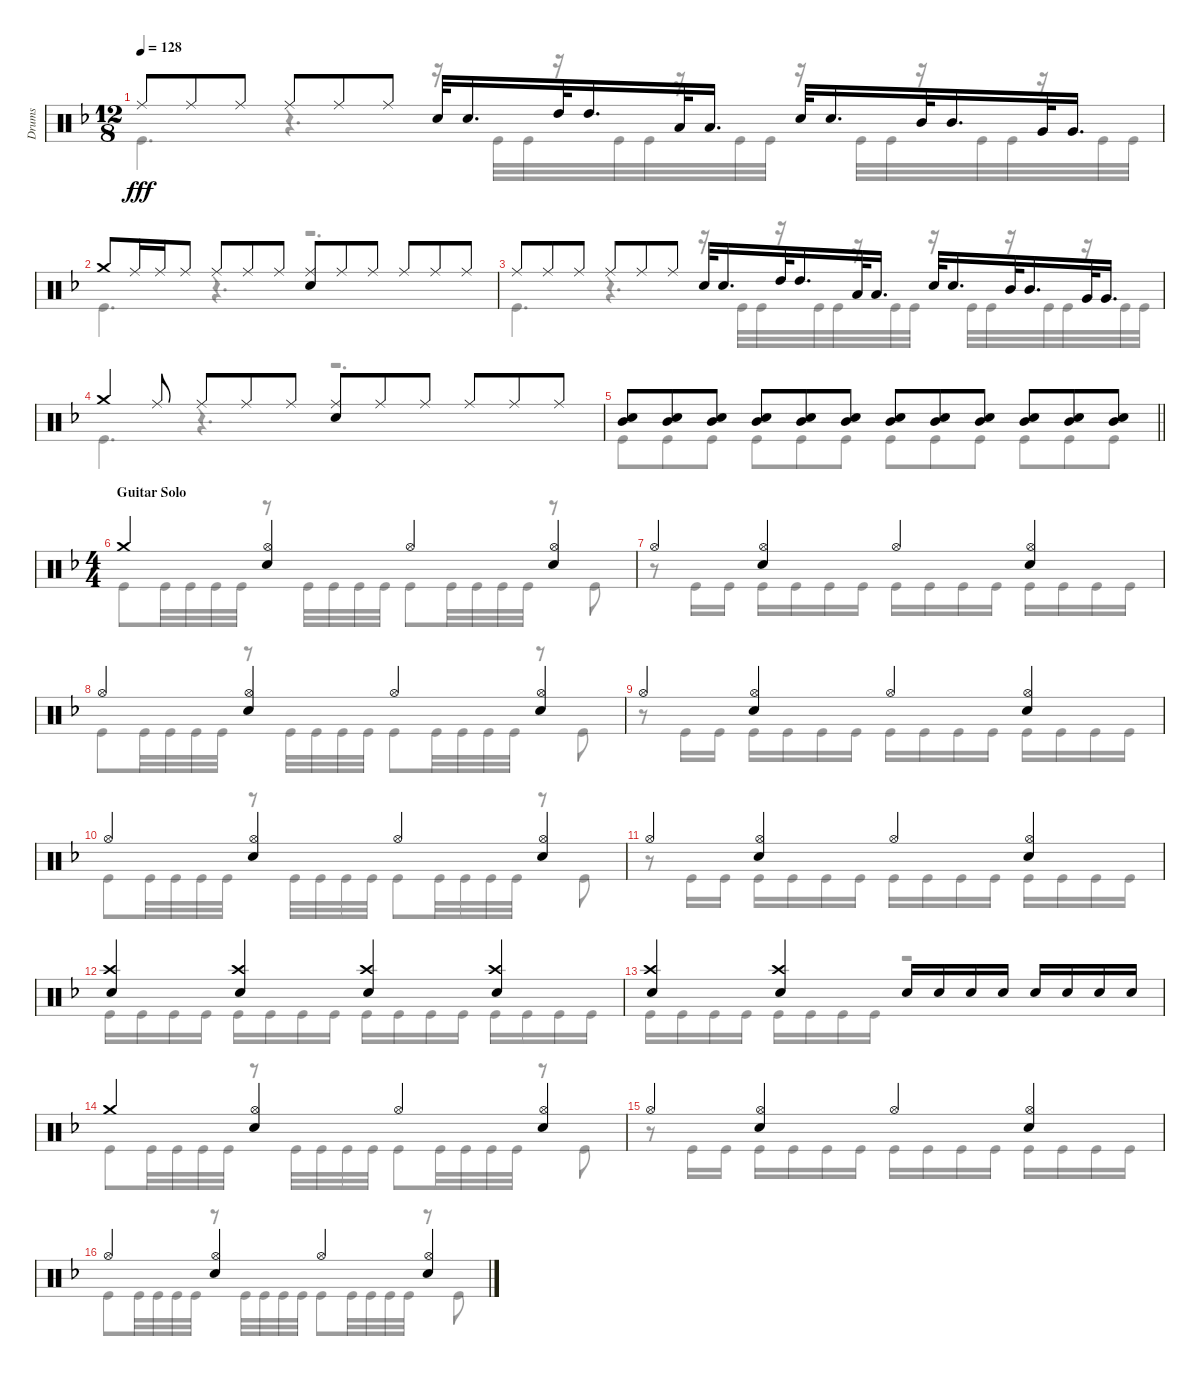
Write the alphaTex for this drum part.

\track ("Drums" "Drums") {instrument percussion}
\staff {score}
\articulation defaults
\voice
\ts (12 8)
\tempo 128
\clef neutral
\ks dminor "Ride (middle)".8{dy fff} "Ride (middle)".8 "Ride (middle)".8 "Ride (middle)".8 "Ride (middle)".8 "Ride (middle)".8 "Electric Snare (hit)".32 "Electric Snare (hit)".16{d} "High Tom (hit)".32 "High Tom (hit)".16{d} "Low Tom (hit)".32 "Low Tom (hit)".16{d} "Electric Snare (hit)".32 "Electric Snare (hit)".16{d} "Mid Tom (hit)".32 "Mid Tom (hit)".16{d} "Very Low Tom (hit)".32 "Very Low Tom (hit)".16{d}
|
"Crash medium (hit)".8 "Ride (middle)".16 "Ride (middle)".16 "Ride (middle)".8 "Ride (middle)".8 "Ride (middle)".8 "Ride (middle)".8 ("Ride (middle)" "Electric Snare (hit)").8 "Ride (middle)".8 "Ride (middle)".8 "Ride (middle)".8 "Ride (middle)".8 "Ride (middle)".8 |
"Ride (middle)".8 "Ride (middle)".8 "Ride (middle)".8 "Ride (middle)".8 "Ride (middle)".8 "Ride (middle)".8 "Electric Snare (hit)".32 "Electric Snare (hit)".16{d} "High Tom (hit)".32 "High Tom (hit)".16{d} "Low Tom (hit)".32 "Low Tom (hit)".16{d} "Electric Snare (hit)".32 "Electric Snare (hit)".16{d} "Mid Tom (hit)".32 "Mid Tom (hit)".16{d} "Very Low Tom (hit)".32 "Very Low Tom (hit)".16{d} |
"Crash medium (hit)".4 "Ride (middle)".8 "Ride (middle)".8 "Ride (middle)".8 "Ride (middle)".8 ("Ride (middle)" "Electric Snare (hit)").8 "Ride (middle)".8 "Ride (middle)".8 "Ride (middle)".8 "Ride (middle)".8 "Ride (middle)".8 |
\barLineRight lightlight
("Mid Tom (hit)" "Electric Snare (hit)").8 ("Mid Tom (hit)" "Electric Snare (hit)").8 ("Mid Tom (hit)" "Electric Snare (hit)").8 ("Mid Tom (hit)" "Electric Snare (hit)").8 ("Mid Tom (hit)" "Electric Snare (hit)").8 ("Mid Tom (hit)" "Electric Snare (hit)").8 ("Mid Tom (hit)" "Electric Snare (hit)").8 ("Mid Tom (hit)" "Electric Snare (hit)").8 ("Mid Tom (hit)" "Electric Snare (hit)").8 ("Mid Tom (hit)" "Electric Snare (hit)").8 ("Mid Tom (hit)" "Electric Snare (hit)").8 ("Mid Tom (hit)" "Electric Snare (hit)").8 |
\ts (4 4)
\section ("" "Guitar Solo")
"Crash medium (hit)".4 ("Hi-Hat (open)" "Electric Snare (hit)").4 "Hi-Hat (open)".4 ("Hi-Hat (open)" "Electric Snare (hit)").4 |
"Hi-Hat (open)".4 ("Hi-Hat (open)" "Electric Snare (hit)").4 "Hi-Hat (open)".4 ("Hi-Hat (open)" "Electric Snare (hit)").4 |
"Hi-Hat (open)".4 ("Hi-Hat (open)" "Electric Snare (hit)").4 "Hi-Hat (open)".4 ("Hi-Hat (open)" "Electric Snare (hit)").4 |
"Hi-Hat (open)".4 ("Hi-Hat (open)" "Electric Snare (hit)").4 "Hi-Hat (open)".4 ("Hi-Hat (open)" "Electric Snare (hit)").4 |
"Hi-Hat (open)".4 ("Hi-Hat (open)" "Electric Snare (hit)").4 "Hi-Hat (open)".4 ("Hi-Hat (open)" "Electric Snare (hit)").4 |
"Hi-Hat (open)".4 ("Hi-Hat (open)" "Electric Snare (hit)").4 "Hi-Hat (open)".4 ("Hi-Hat (open)" "Electric Snare (hit)").4 |
("Crash high (hit)" "Electric Snare (hit)").4 ("Crash high (hit)" "Electric Snare (hit)").4 ("Crash high (hit)" "Electric Snare (hit)").4 ("Crash high (hit)" "Electric Snare (hit)").4 |
("Crash high (hit)" "Electric Snare (hit)").4 ("Crash high (hit)" "Electric Snare (hit)").4 "Electric Snare (hit)".16 "Electric Snare (hit)".16 "Electric Snare (hit)".16 "Electric Snare (hit)".16 "Electric Snare (hit)".16 "Electric Snare (hit)".16 "Electric Snare (hit)".16 "Electric Snare (hit)".16 |
"Crash medium (hit)".4 ("Hi-Hat (open)" "Electric Snare (hit)").4 "Hi-Hat (open)".4 ("Hi-Hat (open)" "Electric Snare (hit)").4 |
"Hi-Hat (open)".4 ("Hi-Hat (open)" "Electric Snare (hit)").4 "Hi-Hat (open)".4 ("Hi-Hat (open)" "Electric Snare (hit)").4 |
"Hi-Hat (open)".4 ("Hi-Hat (open)" "Electric Snare (hit)").4 "Hi-Hat (open)".4 ("Hi-Hat (open)" "Electric Snare (hit)").4
\voice
\clef neutral
\ottava regular
\simile none
\ks dminor "Kick (hit)".4{d dy fff}
r.4{d} r.16 "Kick (hit)".32 "Kick (hit)".32 r.16 "Kick (hit)".32 "Kick (hit)".32 r.16 "Kick (hit)".32 "Kick (hit)".32 r.16 "Kick (hit)".32 "Kick (hit)".32 r.16 "Kick (hit)".32 "Kick (hit)".32 r.16 "Kick (hit)".32 "Kick (hit)".32 |
"Kick (hit)".4{d} r.4{d} r.2{d} |
"Kick (hit)".4{d} r.4{d} r.16 "Kick (hit)".32 "Kick (hit)".32 r.16 "Kick (hit)".32 "Kick (hit)".32 r.16 "Kick (hit)".32 "Kick (hit)".32 r.16 "Kick (hit)".32 "Kick (hit)".32 r.16 "Kick (hit)".32 "Kick (hit)".32 r.16 "Kick (hit)".32 "Kick (hit)".32 |
"Kick (hit)".4{d} r.4{d} r.2{d} |
\barLineRight lightlight "Kick (hit)".8 "Kick (hit)".8 "Kick (hit)".8 "Kick (hit)".8 "Kick (hit)".8 "Kick (hit)".8 "Kick (hit)".8 "Kick (hit)".8 "Kick (hit)".8 "Kick (hit)".8 "Kick (hit)".8 "Kick (hit)".8
|
"Kick (hit)".8 "Kick (hit)".32 "Kick (hit)".32 "Kick (hit)".32 "Kick (hit)".32 r.8 "Kick (hit)".32 "Kick (hit)".32 "Kick (hit)".32 "Kick (hit)".32 "Kick (hit)".8 "Kick (hit)".32 "Kick (hit)".32 "Kick (hit)".32 "Kick (hit)".32 r.8 "Kick (hit)".8 |
r.8 "Kick (hit)".16 "Kick (hit)".16 "Kick (hit)".16 "Kick (hit)".16 "Kick (hit)".16 "Kick (hit)".16 "Kick (hit)".16 "Kick (hit)".16 "Kick (hit)".16 "Kick (hit)".16 "Kick (hit)".16 "Kick (hit)".16 "Kick (hit)".16 "Kick (hit)".16 |
"Kick (hit)".8 "Kick (hit)".32 "Kick (hit)".32 "Kick (hit)".32 "Kick (hit)".32 r.8 "Kick (hit)".32 "Kick (hit)".32 "Kick (hit)".32 "Kick (hit)".32 "Kick (hit)".8 "Kick (hit)".32 "Kick (hit)".32 "Kick (hit)".32 "Kick (hit)".32 r.8 "Kick (hit)".8 |
r.8 "Kick (hit)".16 "Kick (hit)".16 "Kick (hit)".16 "Kick (hit)".16 "Kick (hit)".16 "Kick (hit)".16 "Kick (hit)".16 "Kick (hit)".16 "Kick (hit)".16 "Kick (hit)".16 "Kick (hit)".16 "Kick (hit)".16 "Kick (hit)".16 "Kick (hit)".16 |
"Kick (hit)".8 "Kick (hit)".32 "Kick (hit)".32 "Kick (hit)".32 "Kick (hit)".32 r.8 "Kick (hit)".32 "Kick (hit)".32 "Kick (hit)".32 "Kick (hit)".32 "Kick (hit)".8 "Kick (hit)".32 "Kick (hit)".32 "Kick (hit)".32 "Kick (hit)".32 r.8 "Kick (hit)".8 |
r.8 "Kick (hit)".16 "Kick (hit)".16 "Kick (hit)".16 "Kick (hit)".16 "Kick (hit)".16 "Kick (hit)".16 "Kick (hit)".16 "Kick (hit)".16 "Kick (hit)".16 "Kick (hit)".16 "Kick (hit)".16 "Kick (hit)".16 "Kick (hit)".16 "Kick (hit)".16 |
"Kick (hit)".16 "Kick (hit)".16 "Kick (hit)".16 "Kick (hit)".16 "Kick (hit)".16 "Kick (hit)".16 "Kick (hit)".16 "Kick (hit)".16 "Kick (hit)".16 "Kick (hit)".16 "Kick (hit)".16 "Kick (hit)".16 "Kick (hit)".16 "Kick (hit)".16 "Kick (hit)".16 "Kick (hit)".16 |
"Kick (hit)".16 "Kick (hit)".16 "Kick (hit)".16 "Kick (hit)".16 "Kick (hit)".16 "Kick (hit)".16 "Kick (hit)".16 "Kick (hit)".16 r.2 |
"Kick (hit)".8 "Kick (hit)".32 "Kick (hit)".32 "Kick (hit)".32 "Kick (hit)".32 r.8 "Kick (hit)".32 "Kick (hit)".32 "Kick (hit)".32 "Kick (hit)".32 "Kick (hit)".8 "Kick (hit)".32 "Kick (hit)".32 "Kick (hit)".32 "Kick (hit)".32 r.8 "Kick (hit)".8 |
r.8 "Kick (hit)".16 "Kick (hit)".16 "Kick (hit)".16 "Kick (hit)".16 "Kick (hit)".16 "Kick (hit)".16 "Kick (hit)".16 "Kick (hit)".16 "Kick (hit)".16 "Kick (hit)".16 "Kick (hit)".16 "Kick (hit)".16 "Kick (hit)".16 "Kick (hit)".16 |
"Kick (hit)".8 "Kick (hit)".32 "Kick (hit)".32 "Kick (hit)".32 "Kick (hit)".32 r.8 "Kick (hit)".32 "Kick (hit)".32 "Kick (hit)".32 "Kick (hit)".32 "Kick (hit)".8 "Kick (hit)".32 "Kick (hit)".32 "Kick (hit)".32 "Kick (hit)".32 r.8 "Kick (hit)".8
